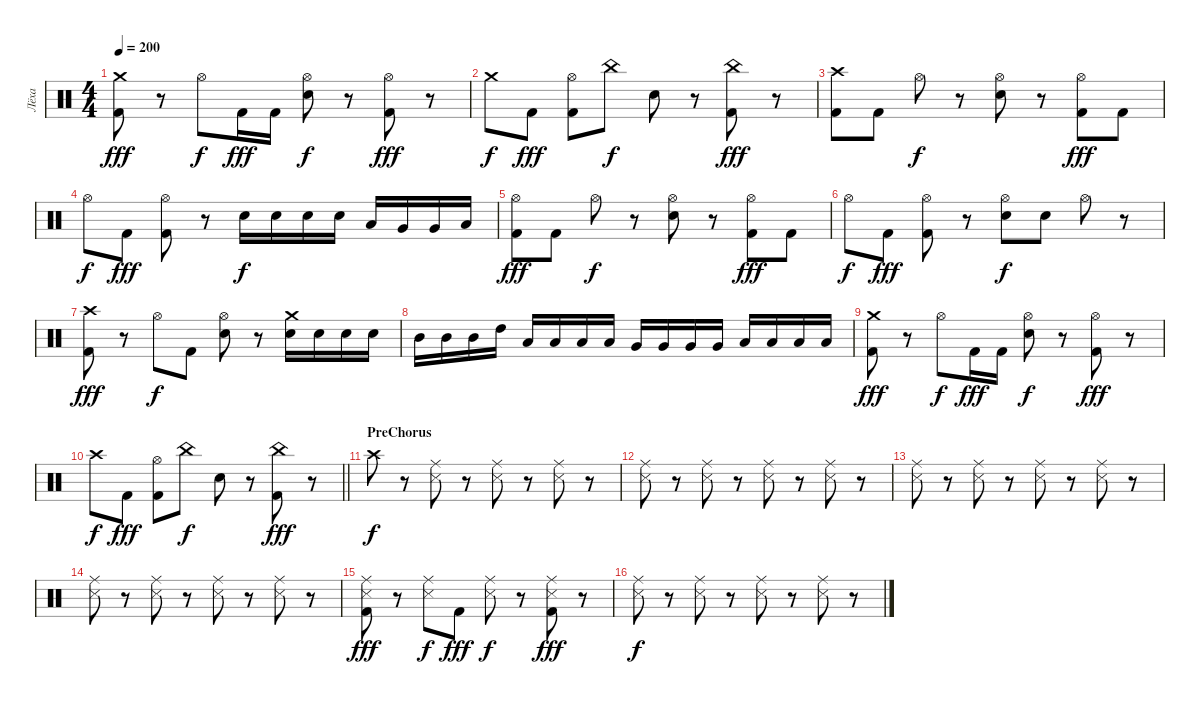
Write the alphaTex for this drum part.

\track ("Лёха" "Лёха") {instrument percussion}
\staff {score}
\articulation defaults
\ts (4 4)
\tempo 200
\clef neutral
\ks c
("Crash medium (hit)" "Kick (hit) 2").8{dy fff} r.8 "Hi-Hat (open)".8{dy f} "Kick (hit) 2".16{dy fff} "Kick (hit) 2".16 ("Hi-Hat (open)" "Electric Snare (hit)").8{dy f} r.8 ("Hi-Hat (open)" "Kick (hit) 2").8{dy fff} r.8 |
"Crash medium (hit)".8{dy f} "Kick (hit) 2".8{dy fff} ("Hi-Hat (open)" "Kick (hit) 2").8 "China (hit)".8{dy f} "Electric Snare (hit)".8 r.8 ("China (hit)" "Kick (hit) 2").8{dy fff} r.8 |
("Crash high (hit)" "Kick (hit) 2").8 "Kick (hit) 2".8 "Hi-Hat (open)".8{dy f} r.8 ("Hi-Hat (open)" "Electric Snare (hit)").8 r.8 ("Hi-Hat (open)" "Kick (hit) 2").8{dy fff} "Kick (hit) 2".8 |
"Hi-Hat (open)".8{dy f} "Kick (hit) 2".8{dy fff} ("Hi-Hat (open)" "Kick (hit) 2").8 r.8 "Electric Snare (hit)".16{dy f} "Electric Snare (hit)".16 "Electric Snare (hit)".16 "Electric Snare (hit)".16 "Low Tom (hit)".16 "Very Low Tom (hit)".16 "Very Low Tom (hit)".16 "Low Floor Tom (hit)".16 |
("Hi-Hat (open)" "Kick (hit) 2").8{dy fff} "Kick (hit) 2".8 "Hi-Hat (open)".8{dy f} r.8 ("Hi-Hat (open)" "Electric Snare (hit)").8 r.8 ("Hi-Hat (open)" "Kick (hit) 2").8{dy fff} "Kick (hit) 2".8 |
"Hi-Hat (open)".8{dy f} "Kick (hit) 2".8{dy fff} ("Hi-Hat (open)" "Kick (hit) 2").8 r.8 ("Hi-Hat (open)" "Electric Snare (hit)").8{dy f} "Electric Snare (hit)".8 "Hi-Hat (open)".8 r.8 |
("Crash high (hit)" "Kick (hit) 2").8{dy fff} r.8 "Hi-Hat (open)".8{dy f} "Kick (hit) 2".8 ("Hi-Hat (open)" "Electric Snare (hit)").8 r.8 ("Crash medium (hit)" "Electric Snare (hit)").16 "Electric Snare (hit)".16 "Electric Snare (hit)".16 "Electric Snare (hit)".16 |
"Mid Tom (hit)".16 "Mid Tom (hit)".16 "Mid Tom (hit)".16 "High Tom (hit)".16 "Low Tom (hit)".16 "Low Tom (hit)".16 "Low Tom (hit)".16 "Low Tom (hit)".16 "Very Low Tom (hit)".16 "Very Low Tom (hit)".16 "Very Low Tom (hit)".16 "Very Low Tom (hit)".16 "Low Floor Tom (hit)".16 "Low Floor Tom (hit)".16 "Low Floor Tom (hit)".16 "Low Floor Tom (hit)".16 |
("Crash medium (hit)" "Kick (hit) 2").8{dy fff} r.8 "Hi-Hat (open)".8{dy f} "Kick (hit) 2".16{dy fff} "Kick (hit) 2".16 ("Hi-Hat (open)" "Electric Snare (hit)").8{dy f} r.8 ("Hi-Hat (open)" "Kick (hit) 2").8{dy fff} r.8 |
\barLineRight lightlight "Crash high (hit)".8{dy f} "Kick (hit) 2".8{dy fff}
("Hi-Hat (open)" "Kick (hit) 2").8 "China (hit)".8{dy f} "Electric Snare (hit)".8 r.8 ("China (hit)" "Kick (hit) 2").8{dy fff} r.8 |
\section ("" "PreChorus")
"Crash high (hit)".8{dy f} r.8 ("Metronome (hit)" "Ride (middle)").8 r.8 ("Metronome (hit)" "Ride (middle)").8 r.8 ("Metronome (hit)" "Ride (middle)").8 r.8 |
("Metronome (hit)" "Ride (middle)").8 r.8 ("Metronome (hit)" "Ride (middle)").8 r.8 ("Metronome (hit)" "Ride (middle)").8 r.8 ("Metronome (hit)" "Ride (middle)").8 r.8 |
("Metronome (hit)" "Ride (middle)").8 r.8 ("Metronome (hit)" "Ride (middle)").8 r.8 ("Metronome (hit)" "Ride (middle)").8 r.8 ("Metronome (hit)" "Ride (middle)").8 r.8 |
("Metronome (hit)" "Ride (middle)").8 r.8 ("Metronome (hit)" "Ride (middle)").8 r.8 ("Metronome (hit)" "Ride (middle)").8 r.8 ("Metronome (hit)" "Ride (middle)").8 r.8 |
("Metronome (hit)" "Ride (middle)" "Kick (hit) 2").8{dy fff} r.8 ("Metronome (hit)" "Ride (middle)").8{dy f} "Kick (hit) 2".8{dy fff} ("Metronome (hit)" "Ride (middle)").8{dy f} r.8 ("Metronome (hit)" "Ride (middle)" "Kick (hit) 2").8{dy fff} r.8 |
("Metronome (hit)" "Ride (middle)").8{dy f} r.8 ("Metronome (hit)" "Ride (middle)").8 r.8 ("Metronome (hit)" "Ride (middle)").8 r.8 ("Metronome (hit)" "Ride (middle)").8 r.8
